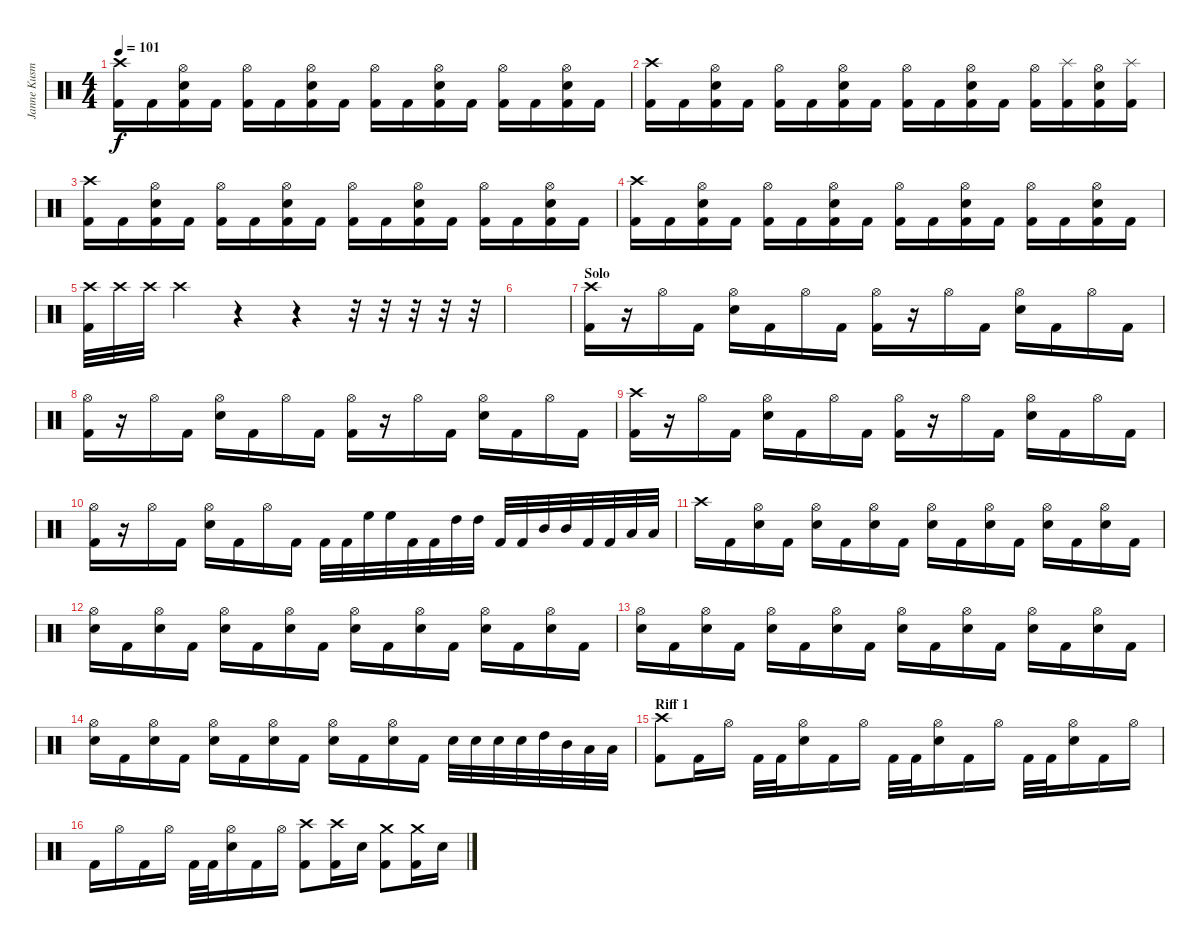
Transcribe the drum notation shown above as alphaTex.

\track ("Janne Kusmin" "Janne Kusm") {instrument percussion}
\staff {score}
\articulation defaults
\ts (4 4)
\tempo 101
\clef neutral
\ks c
("Crash high (hit)" "Kick (hit) 2").16{dy f} "Kick (hit) 2".16 ("Hi-Hat (open)" "Snare (hit) 2" "Kick (hit) 2").16 "Kick (hit) 2".16 ("Hi-Hat (open)" "Kick (hit) 2").16 "Kick (hit) 2".16 ("Hi-Hat (open)" "Snare (hit) 2" "Kick (hit) 2").16 "Kick (hit) 2".16 ("Hi-Hat (open)" "Kick (hit) 2").16 "Kick (hit) 2".16 ("Hi-Hat (open)" "Snare (hit) 2" "Kick (hit) 2").16 "Kick (hit) 2".16 ("Hi-Hat (open)" "Kick (hit) 2").16 "Kick (hit) 2".16 ("Hi-Hat (open)" "Snare (hit) 2" "Kick (hit) 2").16 "Kick (hit) 2".16 |
("Crash high (hit)" "Kick (hit) 2").16 "Kick (hit) 2".16 ("Hi-Hat (open)" "Snare (hit) 2" "Kick (hit) 2").16 "Kick (hit) 2".16 ("Hi-Hat (open)" "Kick (hit) 2").16 "Kick (hit) 2".16 ("Hi-Hat (open)" "Snare (hit) 2" "Kick (hit) 2").16 "Kick (hit) 2".16 ("Hi-Hat (open)" "Kick (hit) 2").16 "Kick (hit) 2".16 ("Hi-Hat (open)" "Snare (hit) 2" "Kick (hit) 2").16 "Kick (hit) 2".16 ("Hi-Hat (open)" "Kick (hit) 2").16 ("Splash (hit)" "Kick (hit) 2").16 ("Hi-Hat (open)" "Snare (hit) 2" "Kick (hit) 2").16 ("Splash (hit)" "Kick (hit) 2").16 |
("Crash high (hit)" "Kick (hit) 2").16 "Kick (hit) 2".16 ("Hi-Hat (open)" "Snare (hit) 2" "Kick (hit) 2").16 "Kick (hit) 2".16 ("Hi-Hat (open)" "Kick (hit) 2").16 "Kick (hit) 2".16 ("Hi-Hat (open)" "Snare (hit) 2" "Kick (hit) 2").16 "Kick (hit) 2".16 ("Hi-Hat (open)" "Kick (hit) 2").16 "Kick (hit) 2".16 ("Hi-Hat (open)" "Snare (hit) 2" "Kick (hit) 2").16 "Kick (hit) 2".16 ("Hi-Hat (open)" "Kick (hit) 2").16 "Kick (hit) 2".16 ("Hi-Hat (open)" "Snare (hit) 2" "Kick (hit) 2").16 "Kick (hit) 2".16 |
("Crash high (hit)" "Kick (hit) 2").16 "Kick (hit) 2".16 ("Hi-Hat (open)" "Snare (hit) 2" "Kick (hit) 2").16 "Kick (hit) 2".16 ("Hi-Hat (open)" "Kick (hit) 2").16 "Kick (hit) 2".16 ("Hi-Hat (open)" "Snare (hit) 2" "Kick (hit) 2").16 "Kick (hit) 2".16 ("Hi-Hat (open)" "Kick (hit) 2").16 "Kick (hit) 2".16 ("Hi-Hat (open)" "Snare (hit) 2" "Kick (hit) 2").16 "Kick (hit) 2".16 ("Hi-Hat (open)" "Kick (hit) 2").16 "Kick (hit) 2".16 ("Hi-Hat (open)" "Snare (hit) 2" "Kick (hit) 2").16 "Kick (hit) 2".16 |
("Crash high (hit)" "Kick (hit) 2").32 "Crash high (hit)".32 "Crash high (hit)".32 "Crash high (hit)".4 r.4 r.4 r.32 r.32 r.32 r.32 r.32 |
|
\section ("" "Solo")
("Crash high (hit)" "Kick (hit) 2").16 r.16 "Hi-Hat (open)".16 "Kick (hit) 2".16 ("Hi-Hat (open)" "Snare (hit) 2").16 "Kick (hit) 2".16 "Hi-Hat (open)".16 "Kick (hit) 2".16 ("Hi-Hat (open)" "Kick (hit) 2").16 r.16 "Hi-Hat (open)".16 "Kick (hit) 2".16 ("Hi-Hat (open)" "Snare (hit) 2").16 "Kick (hit) 2".16 "Hi-Hat (open)".16 "Kick (hit) 2".16 |
("Hi-Hat (open)" "Kick (hit) 2").16 r.16 "Hi-Hat (open)".16 "Kick (hit) 2".16 ("Hi-Hat (open)" "Snare (hit) 2").16 "Kick (hit) 2".16 "Hi-Hat (open)".16 "Kick (hit) 2".16 ("Hi-Hat (open)" "Kick (hit) 2").16 r.16 "Hi-Hat (open)".16 "Kick (hit) 2".16 ("Hi-Hat (open)" "Snare (hit) 2").16 "Kick (hit) 2".16 "Hi-Hat (open)".16 "Kick (hit) 2".16 |
("Crash high (hit)" "Kick (hit) 2").16 r.16 "Hi-Hat (open)".16 "Kick (hit) 2".16 ("Hi-Hat (open)" "Snare (hit) 2").16 "Kick (hit) 2".16 "Hi-Hat (open)".16 "Kick (hit) 2".16 ("Hi-Hat (open)" "Kick (hit) 2").16 r.16 "Hi-Hat (open)".16 "Kick (hit) 2".16 ("Hi-Hat (open)" "Snare (hit) 2").16 "Kick (hit) 2".16 "Hi-Hat (open)".16 "Kick (hit) 2".16 |
("Hi-Hat (open)" "Kick (hit) 2").16 r.16 "Hi-Hat (open)".16 "Kick (hit) 2".16 ("Hi-Hat (open)" "Snare (hit) 2").16 "Kick (hit) 2".16 "Hi-Hat (open)".16 "Kick (hit) 2".16 "Kick (hit) 2".32 "Kick (hit) 2".32 "High Floor Tom (hit)".32 "High Floor Tom (hit)".32 "Kick (hit) 2".32 "Kick (hit) 2".32 "High Tom (hit)".32 "High Tom (hit)".32 "Kick (hit) 2".32 "Kick (hit) 2".32 "Mid Tom (hit)".32 "Mid Tom (hit)".32 "Kick (hit) 2".32 "Kick (hit) 2".32 "Low Tom (hit)".32 "Low Tom (hit)".32 |
"Crash high (hit)".16 "Kick (hit) 2".16 ("Hi-Hat (open)" "Snare (hit) 2").16 "Kick (hit) 2".16 ("Hi-Hat (open)" "Snare (hit) 2").16 "Kick (hit) 2".16 ("Hi-Hat (open)" "Snare (hit) 2").16 "Kick (hit) 2".16 ("Hi-Hat (open)" "Snare (hit) 2").16 "Kick (hit) 2".16 ("Hi-Hat (open)" "Snare (hit) 2").16 "Kick (hit) 2".16 ("Hi-Hat (open)" "Snare (hit) 2").16 "Kick (hit) 2".16 ("Hi-Hat (open)" "Snare (hit) 2").16 "Kick (hit) 2".16 |
("Hi-Hat (open)" "Snare (hit) 2").16 "Kick (hit) 2".16 ("Hi-Hat (open)" "Snare (hit) 2").16 "Kick (hit) 2".16 ("Hi-Hat (open)" "Snare (hit) 2").16 "Kick (hit) 2".16 ("Hi-Hat (open)" "Snare (hit) 2").16 "Kick (hit) 2".16 ("Hi-Hat (open)" "Snare (hit) 2").16 "Kick (hit) 2".16 ("Hi-Hat (open)" "Snare (hit) 2").16 "Kick (hit) 2".16 ("Hi-Hat (open)" "Snare (hit) 2").16 "Kick (hit) 2".16 ("Hi-Hat (open)" "Snare (hit) 2").16 "Kick (hit) 2".16 |
("Hi-Hat (open)" "Snare (hit) 2").16 "Kick (hit) 2".16 ("Hi-Hat (open)" "Snare (hit) 2").16 "Kick (hit) 2".16 ("Hi-Hat (open)" "Snare (hit) 2").16 "Kick (hit) 2".16 ("Hi-Hat (open)" "Snare (hit) 2").16 "Kick (hit) 2".16 ("Hi-Hat (open)" "Snare (hit) 2").16 "Kick (hit) 2".16 ("Hi-Hat (open)" "Snare (hit) 2").16 "Kick (hit) 2".16 ("Hi-Hat (open)" "Snare (hit) 2").16 "Kick (hit) 2".16 ("Hi-Hat (open)" "Snare (hit) 2").16 "Kick (hit) 2".16 |
("Hi-Hat (open)" "Snare (hit) 2").16 "Kick (hit) 2".16 ("Hi-Hat (open)" "Snare (hit) 2").16 "Kick (hit) 2".16 ("Hi-Hat (open)" "Snare (hit) 2").16 "Kick (hit) 2".16 ("Hi-Hat (open)" "Snare (hit) 2").16 "Kick (hit) 2".16 ("Hi-Hat (open)" "Snare (hit) 2").16 "Kick (hit) 2".16 ("Hi-Hat (open)" "Snare (hit) 2").16 "Kick (hit) 2".16 "Snare (hit) 2".32 "Snare (hit) 2".32 "Snare (hit) 2".32 "Snare (hit) 2".32 "High Tom (hit)".32 "Mid Tom (hit)".32 "Low Tom (hit)".32 "Low Tom (hit)".32 |
\section ("" "Riff 1")
("Crash high (hit)" "Kick (hit) 2").8 "Kick (hit) 2".16 "Hi-Hat (open)".16 "Kick (hit) 2".32 "Kick (hit) 2".32 ("Hi-Hat (open)" "Snare (hit) 2").16 "Kick (hit) 2".16 "Hi-Hat (open)".16 "Kick (hit) 2".32 "Kick (hit) 2".32 ("Hi-Hat (open)" "Snare (hit) 2").16 "Kick (hit) 2".16 "Hi-Hat (open)".16 "Kick (hit) 2".32 "Kick (hit) 2".32 ("Hi-Hat (open)" "Snare (hit) 2").16 "Kick (hit) 2".16 "Hi-Hat (open)".16 |
"Kick (hit) 2".16 "Hi-Hat (open)".16 "Kick (hit) 2".16 "Hi-Hat (open)".16 "Kick (hit) 2".32 "Kick (hit) 2".32 ("Hi-Hat (open)" "Snare (hit) 2").16 "Kick (hit) 2".16 "Hi-Hat (open)".16 ("Crash high (hit)" "Kick (hit) 2").8 ("Crash high (hit)" "Kick (hit) 2").16 "Snare (hit) 2".16 ("Crash medium (hit)" "Kick (hit) 2").8 ("Crash medium (hit)" "Kick (hit) 2").16 "Snare (hit) 2".16
